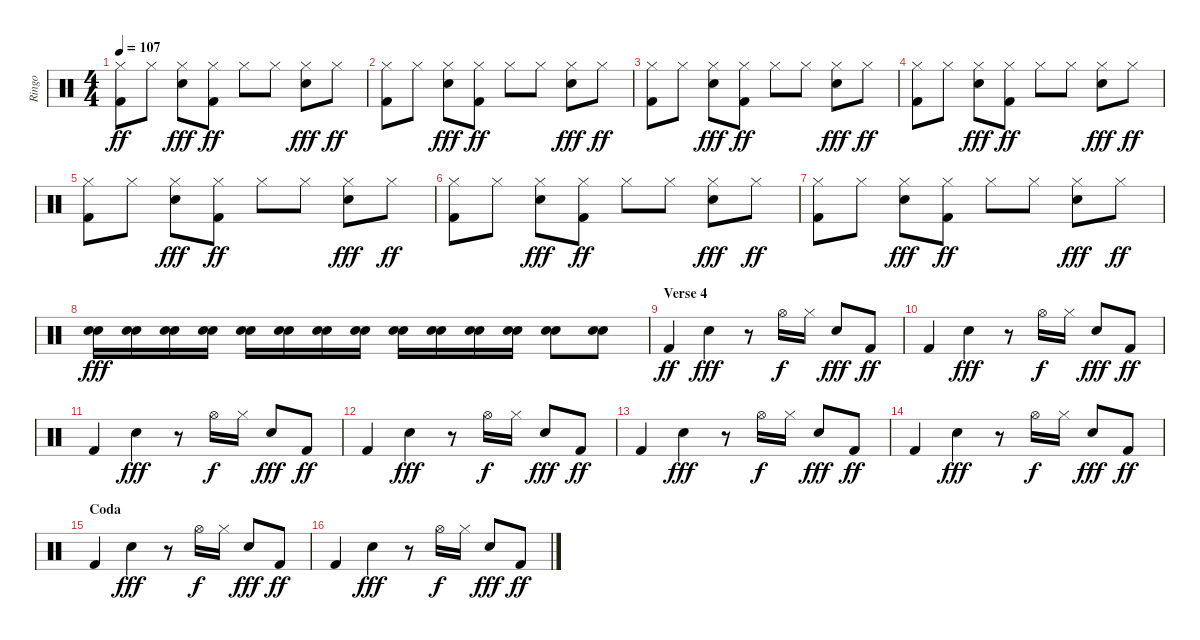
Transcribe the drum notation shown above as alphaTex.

\track ("Ringo" "Ringo") {instrument percussion}
\staff {score}
\articulation defaults
\ts (4 4)
\tempo 107
\clef neutral
\ks c
("Hi-Hat (closed)" "Kick (hit) 2").8{dy ff} "Hi-Hat (closed)".8 ("Hi-Hat (closed)" "Snare (hit) 2").8{dy fff} ("Hi-Hat (closed)" "Kick (hit) 2").8{dy ff} "Hi-Hat (closed)".8 "Hi-Hat (closed)".8 ("Hi-Hat (closed)" "Snare (hit) 2").8{dy fff} "Hi-Hat (closed)".8{dy ff} |
("Hi-Hat (closed)" "Kick (hit) 2").8 "Hi-Hat (closed)".8 ("Hi-Hat (closed)" "Snare (hit) 2").8{dy fff} ("Hi-Hat (closed)" "Kick (hit) 2").8{dy ff} "Hi-Hat (closed)".8 "Hi-Hat (closed)".8 ("Hi-Hat (closed)" "Snare (hit) 2").8{dy fff} "Hi-Hat (closed)".8{dy ff} |
("Hi-Hat (closed)" "Kick (hit) 2").8 "Hi-Hat (closed)".8 ("Hi-Hat (closed)" "Snare (hit) 2").8{dy fff} ("Hi-Hat (closed)" "Kick (hit) 2").8{dy ff} "Hi-Hat (closed)".8 "Hi-Hat (closed)".8 ("Hi-Hat (closed)" "Snare (hit) 2").8{dy fff} "Hi-Hat (closed)".8{dy ff} |
("Hi-Hat (closed)" "Kick (hit) 2").8 "Hi-Hat (closed)".8 ("Hi-Hat (closed)" "Snare (hit) 2").8{dy fff} ("Hi-Hat (closed)" "Kick (hit) 2").8{dy ff} "Hi-Hat (closed)".8 "Hi-Hat (closed)".8 ("Hi-Hat (closed)" "Snare (hit) 2").8{dy fff} "Hi-Hat (closed)".8{dy ff} |
("Hi-Hat (closed)" "Kick (hit) 2").8 "Hi-Hat (closed)".8 ("Hi-Hat (closed)" "Snare (hit) 2").8{dy fff} ("Hi-Hat (closed)" "Kick (hit) 2").8{dy ff} "Hi-Hat (closed)".8 "Hi-Hat (closed)".8 ("Hi-Hat (closed)" "Snare (hit) 2").8{dy fff} "Hi-Hat (closed)".8{dy ff} |
("Hi-Hat (closed)" "Kick (hit) 2").8 "Hi-Hat (closed)".8 ("Hi-Hat (closed)" "Snare (hit) 2").8{dy fff} ("Hi-Hat (closed)" "Kick (hit) 2").8{dy ff} "Hi-Hat (closed)".8 "Hi-Hat (closed)".8 ("Hi-Hat (closed)" "Snare (hit) 2").8{dy fff} "Hi-Hat (closed)".8{dy ff} |
("Hi-Hat (closed)" "Kick (hit) 2").8 "Hi-Hat (closed)".8 ("Hi-Hat (closed)" "Snare (hit) 2").8{dy fff} ("Hi-Hat (closed)" "Kick (hit) 2").8{dy ff} "Hi-Hat (closed)".8 "Hi-Hat (closed)".8 ("Hi-Hat (closed)" "Snare (hit) 2").8{dy fff} "Hi-Hat (closed)".8{dy ff} |
("Electric Snare (hit)" "Snare (hit) 2").16{dy fff} ("Electric Snare (hit)" "Snare (hit) 2").16 ("Electric Snare (hit)" "Snare (hit) 2").16 ("Electric Snare (hit)" "Snare (hit) 2").16 ("Electric Snare (hit)" "Snare (hit) 2").16 ("Electric Snare (hit)" "Snare (hit) 2").16 ("Electric Snare (hit)" "Snare (hit) 2").16 ("Electric Snare (hit)" "Snare (hit) 2").16 ("Electric Snare (hit)" "Snare (hit) 2").16 ("Electric Snare (hit)" "Snare (hit) 2").16 ("Electric Snare (hit)" "Snare (hit) 2").16 ("Electric Snare (hit)" "Snare (hit) 2").16 ("Electric Snare (hit)" "Snare (hit) 2").8 ("Electric Snare (hit)" "Snare (hit) 2").8 |
\section ("" "Verse 4")
"Kick (hit) 2".4{dy ff} "Snare (hit) 2".4{dy fff} r.8 "Hi-Hat (open)".16{dy f} "Hi-Hat (closed)".16 "Snare (hit) 2".8{dy fff} "Kick (hit) 2".8{dy ff} |
"Kick (hit) 2".4 "Snare (hit) 2".4{dy fff} r.8 "Hi-Hat (open)".16{dy f} "Hi-Hat (closed)".16 "Snare (hit) 2".8{dy fff} "Kick (hit) 2".8{dy ff} |
"Kick (hit) 2".4 "Snare (hit) 2".4{dy fff} r.8 "Hi-Hat (open)".16{dy f} "Hi-Hat (closed)".16 "Snare (hit) 2".8{dy fff} "Kick (hit) 2".8{dy ff} |
"Kick (hit) 2".4 "Snare (hit) 2".4{dy fff} r.8 "Hi-Hat (open)".16{dy f} "Hi-Hat (closed)".16 "Snare (hit) 2".8{dy fff} "Kick (hit) 2".8{dy ff} |
"Kick (hit) 2".4 "Snare (hit) 2".4{dy fff} r.8 "Hi-Hat (open)".16{dy f} "Hi-Hat (closed)".16 "Snare (hit) 2".8{dy fff} "Kick (hit) 2".8{dy ff} |
"Kick (hit) 2".4 "Snare (hit) 2".4{dy fff} r.8 "Hi-Hat (open)".16{dy f} "Hi-Hat (closed)".16 "Snare (hit) 2".8{dy fff} "Kick (hit) 2".8{dy ff} |
\section ("" "Coda")
"Kick (hit) 2".4 "Snare (hit) 2".4{dy fff} r.8 "Hi-Hat (open)".16{dy f} "Hi-Hat (closed)".16 "Snare (hit) 2".8{dy fff} "Kick (hit) 2".8{dy ff} |
"Kick (hit) 2".4 "Snare (hit) 2".4{dy fff} r.8 "Hi-Hat (open)".16{dy f} "Hi-Hat (closed)".16 "Snare (hit) 2".8{dy fff} "Kick (hit) 2".8{dy ff}
